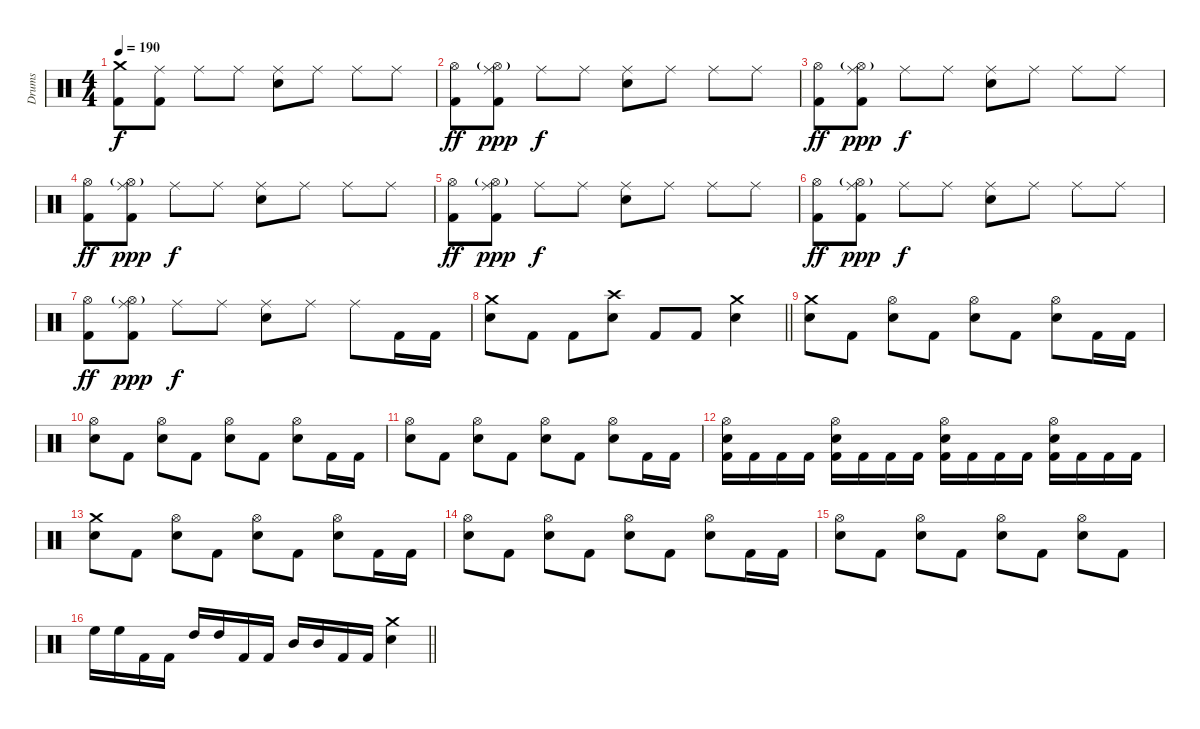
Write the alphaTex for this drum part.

\track ("Drums" "Drums") {instrument percussion}
\staff {score}
\articulation defaults
\ts (4 4)
\tempo 190
\clef neutral
\ks c
("Crash medium (hit)" "Kick (hit) 2").8{dy f} ("Ride (middle)" "Kick (hit) 2").8 "Ride (middle)".8 "Ride (middle)".8 ("Ride (middle)" "Electric Snare (hit)").8 "Ride (middle)".8 "Ride (middle)".8 "Ride (middle)".8 |
("Hi-Hat (open)" "Kick (hit) 2").8{dy ff} ("Hi-Hat (open)"{g} "Ride (middle)" "Kick (hit) 2").8{dy ppp} "Ride (middle)".8{dy f} "Ride (middle)".8 ("Ride (middle)" "Electric Snare (hit)").8 "Ride (middle)".8 "Ride (middle)".8 "Ride (middle)".8 |
("Hi-Hat (open)" "Kick (hit) 2").8{dy ff} ("Hi-Hat (open)"{g} "Ride (middle)" "Kick (hit) 2").8{dy ppp} "Ride (middle)".8{dy f} "Ride (middle)".8 ("Ride (middle)" "Electric Snare (hit)").8 "Ride (middle)".8 "Ride (middle)".8 "Ride (middle)".8 |
("Hi-Hat (open)" "Kick (hit) 2").8{dy ff} ("Hi-Hat (open)"{g} "Ride (middle)" "Kick (hit) 2").8{dy ppp} "Ride (middle)".8{dy f} "Ride (middle)".8 ("Ride (middle)" "Electric Snare (hit)").8 "Ride (middle)".8 "Ride (middle)".8 "Ride (middle)".8 |
("Hi-Hat (open)" "Kick (hit) 2").8{dy ff} ("Hi-Hat (open)"{g} "Ride (middle)" "Kick (hit) 2").8{dy ppp} "Ride (middle)".8{dy f} "Ride (middle)".8 ("Ride (middle)" "Electric Snare (hit)").8 "Ride (middle)".8 "Ride (middle)".8 "Ride (middle)".8 |
("Hi-Hat (open)" "Kick (hit) 2").8{dy ff} ("Hi-Hat (open)"{g} "Ride (middle)" "Kick (hit) 2").8{dy ppp} "Ride (middle)".8{dy f} "Ride (middle)".8 ("Ride (middle)" "Electric Snare (hit)").8 "Ride (middle)".8 "Ride (middle)".8 "Ride (middle)".8 |
("Hi-Hat (open)" "Kick (hit) 2").8{dy ff} ("Hi-Hat (open)"{g} "Ride (middle)" "Kick (hit) 2").8{dy ppp} "Ride (middle)".8{dy f} "Ride (middle)".8 ("Ride (middle)" "Electric Snare (hit)").8 "Ride (middle)".8 "Ride (middle)".8 "Kick (hit) 2".16 "Kick (hit) 2".16 |
\barLineRight lightlight
("Crash medium (hit)" "Electric Snare (hit)").8 "Kick (hit) 2".8 "Kick (hit) 2".8 ("Crash high (hit)" "Electric Snare (hit)").8 "Kick (hit) 2".8 "Kick (hit) 2".8 ("Crash medium (hit)" "Electric Snare (hit)").4 |
("Crash medium (hit)" "Electric Snare (hit)").8 "Kick (hit) 2".8 ("Hi-Hat (open)" "Electric Snare (hit)").8 "Kick (hit) 2".8 ("Hi-Hat (open)" "Electric Snare (hit)").8 "Kick (hit) 2".8 ("Hi-Hat (open)" "Electric Snare (hit)").8 "Kick (hit) 2".16 "Kick (hit) 2".16 |
("Hi-Hat (open)" "Electric Snare (hit)").8 "Kick (hit) 2".8 ("Hi-Hat (open)" "Electric Snare (hit)").8 "Kick (hit) 2".8 ("Hi-Hat (open)" "Electric Snare (hit)").8 "Kick (hit) 2".8 ("Hi-Hat (open)" "Electric Snare (hit)").8 "Kick (hit) 2".16 "Kick (hit) 2".16 |
("Hi-Hat (open)" "Electric Snare (hit)").8 "Kick (hit) 2".8 ("Hi-Hat (open)" "Electric Snare (hit)").8 "Kick (hit) 2".8 ("Hi-Hat (open)" "Electric Snare (hit)").8 "Kick (hit) 2".8 ("Hi-Hat (open)" "Electric Snare (hit)").8 "Kick (hit) 2".16 "Kick (hit) 2".16 |
("Hi-Hat (open)" "Electric Snare (hit)" "Kick (hit) 2").16 "Kick (hit) 2".16 "Kick (hit) 2".16 "Kick (hit) 2".16 ("Hi-Hat (open)" "Electric Snare (hit)" "Kick (hit) 2").16 "Kick (hit) 2".16 "Kick (hit) 2".16 "Kick (hit) 2".16 ("Hi-Hat (open)" "Electric Snare (hit)" "Kick (hit) 2").16 "Kick (hit) 2".16 "Kick (hit) 2".16 "Kick (hit) 2".16 ("Hi-Hat (open)" "Electric Snare (hit)" "Kick (hit) 2").16 "Kick (hit) 2".16 "Kick (hit) 2".16 "Kick (hit) 2".16 |
("Crash medium (hit)" "Electric Snare (hit)").8 "Kick (hit) 2".8 ("Hi-Hat (open)" "Electric Snare (hit)").8 "Kick (hit) 2".8 ("Hi-Hat (open)" "Electric Snare (hit)").8 "Kick (hit) 2".8 ("Hi-Hat (open)" "Electric Snare (hit)").8 "Kick (hit) 2".16 "Kick (hit) 2".16 |
("Hi-Hat (open)" "Electric Snare (hit)").8 "Kick (hit) 2".8 ("Hi-Hat (open)" "Electric Snare (hit)").8 "Kick (hit) 2".8 ("Hi-Hat (open)" "Electric Snare (hit)").8 "Kick (hit) 2".8 ("Hi-Hat (open)" "Electric Snare (hit)").8 "Kick (hit) 2".16 "Kick (hit) 2".16 |
("Hi-Hat (open)" "Electric Snare (hit)").8 "Kick (hit) 2".8 ("Hi-Hat (open)" "Electric Snare (hit)").8 "Kick (hit) 2".8 ("Hi-Hat (open)" "Electric Snare (hit)").8 "Kick (hit) 2".8 ("Hi-Hat (open)" "Electric Snare (hit)").8 "Kick (hit) 2".8 |
\barLineRight lightlight "High Floor Tom (hit)".16 "High Floor Tom (hit)".16 "Kick (hit) 2".16 "Kick (hit) 2".16 "High Tom (hit)".16 "High Tom (hit)".16 "Kick (hit) 2".16 "Kick (hit) 2".16 "Mid Tom (hit)".16 "Mid Tom (hit)".16 "Kick (hit) 2".16 "Kick (hit) 2".16
("Crash medium (hit)" "Electric Snare (hit)").4
